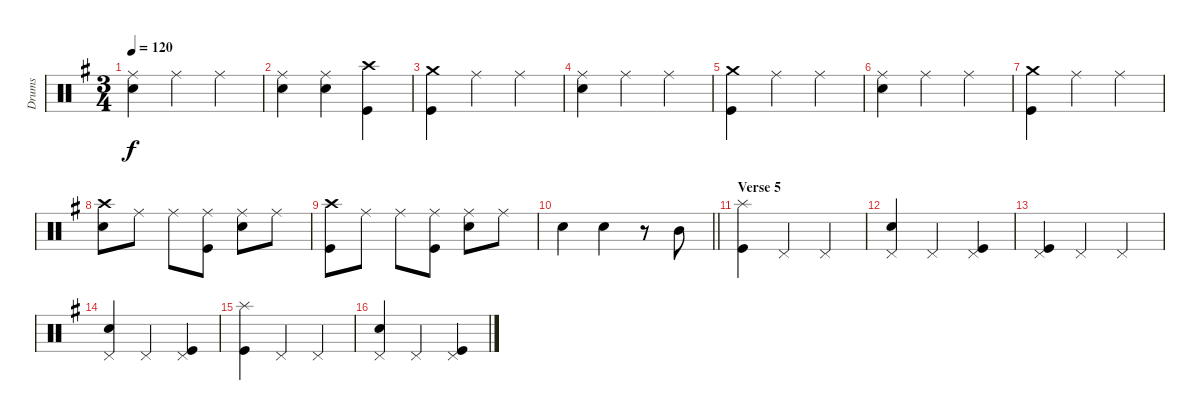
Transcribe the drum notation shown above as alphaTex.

\track ("Drums" "Drums") {instrument percussion}
\staff {score}
\articulation defaults
\ts (3 4)
\tempo 120
\clef neutral
\ks g
("Ride (middle)" "Snare (hit) 2").4{dy f} "Ride (middle)".4 "Ride (middle)".4 |
("Ride (middle)" "Snare (hit) 2").4 ("Ride (middle)" "Snare (hit) 2").4 ("Crash high (hit)" "Kick (hit)").4 |
("Crash medium (hit)" "Kick (hit)").4 "Ride (middle)".4 "Ride (middle)".4 |
("Ride (middle)" "Snare (hit) 2").4 "Ride (middle)".4 "Ride (middle)".4 |
("Crash medium (hit)" "Kick (hit)").4 "Ride (middle)".4 "Ride (middle)".4 |
("Ride (middle)" "Snare (hit) 2").4 "Ride (middle)".4 "Ride (middle)".4 |
("Crash medium (hit)" "Kick (hit)").4 "Ride (middle)".4 "Ride (middle)".4 |
("Crash high (hit)" "Snare (hit) 2").8 "Ride (middle)".8 "Ride (middle)".8 ("Ride (middle)" "Kick (hit)").8 ("Ride (middle)" "Snare (hit) 2").8 "Ride (middle)".8 |
("Crash high (hit)" "Kick (hit)").8 "Ride (middle)".8 "Ride (middle)".8 ("Ride (middle)" "Kick (hit)").8 ("Ride (middle)" "Snare (hit) 2").8 "Ride (middle)".8 |
\barLineRight lightlight "Snare (hit) 2".4 "Snare (hit) 2".4
r.8 "Mid Tom (hit)".8 |
\section ("" "Verse 5")
("Splash (hit)" "Kick (hit)").4 "Pedal Hi-Hat (hit)".4 "Pedal Hi-Hat (hit)".4 |
("Pedal Hi-Hat (hit)" "Snare (hit) 2").4 "Pedal Hi-Hat (hit)".4 ("Pedal Hi-Hat (hit)" "Kick (hit)").4 |
("Pedal Hi-Hat (hit)" "Kick (hit)").4 "Pedal Hi-Hat (hit)".4 "Pedal Hi-Hat (hit)".4 |
("Pedal Hi-Hat (hit)" "Snare (hit) 2").4 "Pedal Hi-Hat (hit)".4 ("Pedal Hi-Hat (hit)" "Kick (hit)").4 |
("Splash (hit)" "Kick (hit)").4 "Pedal Hi-Hat (hit)".4 "Pedal Hi-Hat (hit)".4 |
("Pedal Hi-Hat (hit)" "Snare (hit) 2").4 "Pedal Hi-Hat (hit)".4 ("Pedal Hi-Hat (hit)" "Kick (hit)").4
